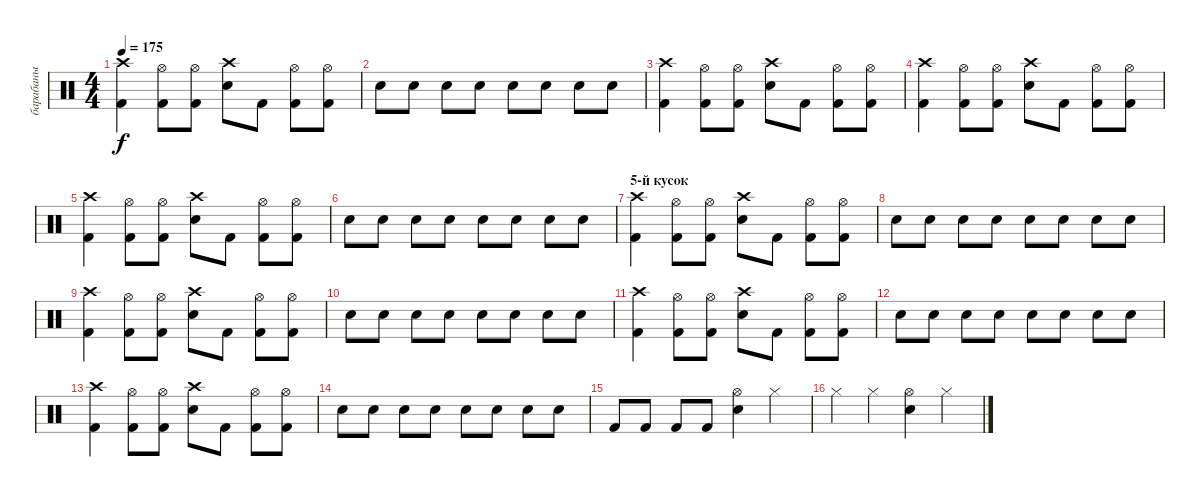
\track ("барабаны" "барабаны") {instrument percussion}
\staff {score}
\articulation defaults
\ts (4 4)
\tempo 175
\clef neutral
\ks c
("Crash high (hit)" "Kick (hit) 2").4{dy f} ("Hi-Hat (open)" "Kick (hit) 2").8 ("Hi-Hat (open)" "Kick (hit) 2").8 ("Crash high (hit)" "Snare (hit) 2").8 "Kick (hit) 2".8 ("Hi-Hat (open)" "Kick (hit) 2").8 ("Hi-Hat (open)" "Kick (hit) 2").8 |
"Snare (hit) 2".8 "Snare (hit) 2".8 "Snare (hit) 2".8 "Snare (hit) 2".8 "Snare (hit) 2".8 "Snare (hit) 2".8 "Snare (hit) 2".8 "Snare (hit) 2".8 |
("Crash high (hit)" "Kick (hit) 2").4 ("Hi-Hat (open)" "Kick (hit) 2").8 ("Hi-Hat (open)" "Kick (hit) 2").8 ("Crash high (hit)" "Snare (hit) 2").8 "Kick (hit) 2".8 ("Hi-Hat (open)" "Kick (hit) 2").8 ("Hi-Hat (open)" "Kick (hit) 2").8 |
("Crash high (hit)" "Kick (hit) 2").4 ("Hi-Hat (open)" "Kick (hit) 2").8 ("Hi-Hat (open)" "Kick (hit) 2").8 ("Crash high (hit)" "Snare (hit) 2").8 "Kick (hit) 2".8 ("Hi-Hat (open)" "Kick (hit) 2").8 ("Hi-Hat (open)" "Kick (hit) 2").8 |
("Crash high (hit)" "Kick (hit) 2").4 ("Hi-Hat (open)" "Kick (hit) 2").8 ("Hi-Hat (open)" "Kick (hit) 2").8 ("Crash high (hit)" "Snare (hit) 2").8 "Kick (hit) 2".8 ("Hi-Hat (open)" "Kick (hit) 2").8 ("Hi-Hat (open)" "Kick (hit) 2").8 |
"Snare (hit) 2".8 "Snare (hit) 2".8 "Snare (hit) 2".8 "Snare (hit) 2".8 "Snare (hit) 2".8 "Snare (hit) 2".8 "Snare (hit) 2".8 "Snare (hit) 2".8 |
\section ("" "5-й кусок")
("Crash high (hit)" "Kick (hit) 2").4 ("Hi-Hat (open)" "Kick (hit) 2").8 ("Hi-Hat (open)" "Kick (hit) 2").8 ("Crash high (hit)" "Snare (hit) 2").8 "Kick (hit) 2".8 ("Hi-Hat (open)" "Kick (hit) 2").8 ("Hi-Hat (open)" "Kick (hit) 2").8 |
"Snare (hit) 2".8 "Snare (hit) 2".8 "Snare (hit) 2".8 "Snare (hit) 2".8 "Snare (hit) 2".8 "Snare (hit) 2".8 "Snare (hit) 2".8 "Snare (hit) 2".8 |
("Crash high (hit)" "Kick (hit) 2").4 ("Hi-Hat (open)" "Kick (hit) 2").8 ("Hi-Hat (open)" "Kick (hit) 2").8 ("Crash high (hit)" "Snare (hit) 2").8 "Kick (hit) 2".8 ("Hi-Hat (open)" "Kick (hit) 2").8 ("Hi-Hat (open)" "Kick (hit) 2").8 |
"Snare (hit) 2".8 "Snare (hit) 2".8 "Snare (hit) 2".8 "Snare (hit) 2".8 "Snare (hit) 2".8 "Snare (hit) 2".8 "Snare (hit) 2".8 "Snare (hit) 2".8 |
("Crash high (hit)" "Kick (hit) 2").4 ("Hi-Hat (open)" "Kick (hit) 2").8 ("Hi-Hat (open)" "Kick (hit) 2").8 ("Crash high (hit)" "Snare (hit) 2").8 "Kick (hit) 2".8 ("Hi-Hat (open)" "Kick (hit) 2").8 ("Hi-Hat (open)" "Kick (hit) 2").8 |
"Snare (hit) 2".8 "Snare (hit) 2".8 "Snare (hit) 2".8 "Snare (hit) 2".8 "Snare (hit) 2".8 "Snare (hit) 2".8 "Snare (hit) 2".8 "Snare (hit) 2".8 |
("Crash high (hit)" "Kick (hit) 2").4 ("Hi-Hat (open)" "Kick (hit) 2").8 ("Hi-Hat (open)" "Kick (hit) 2").8 ("Crash high (hit)" "Snare (hit) 2").8 "Kick (hit) 2".8 ("Hi-Hat (open)" "Kick (hit) 2").8 ("Hi-Hat (open)" "Kick (hit) 2").8 |
"Snare (hit) 2".8 "Snare (hit) 2".8 "Snare (hit) 2".8 "Snare (hit) 2".8 "Snare (hit) 2".8 "Snare (hit) 2".8 "Snare (hit) 2".8 "Snare (hit) 2".8 |
"Kick (hit) 2".8 "Kick (hit) 2".8 "Kick (hit) 2".8 "Kick (hit) 2".8 ("Hi-Hat (open)" "Snare (hit) 2").4 "Hi-Hat (closed)".4 |
"Hi-Hat (closed)".4 "Hi-Hat (closed)".4 ("Hi-Hat (open)" "Snare (hit) 2").4 "Hi-Hat (closed)".4
